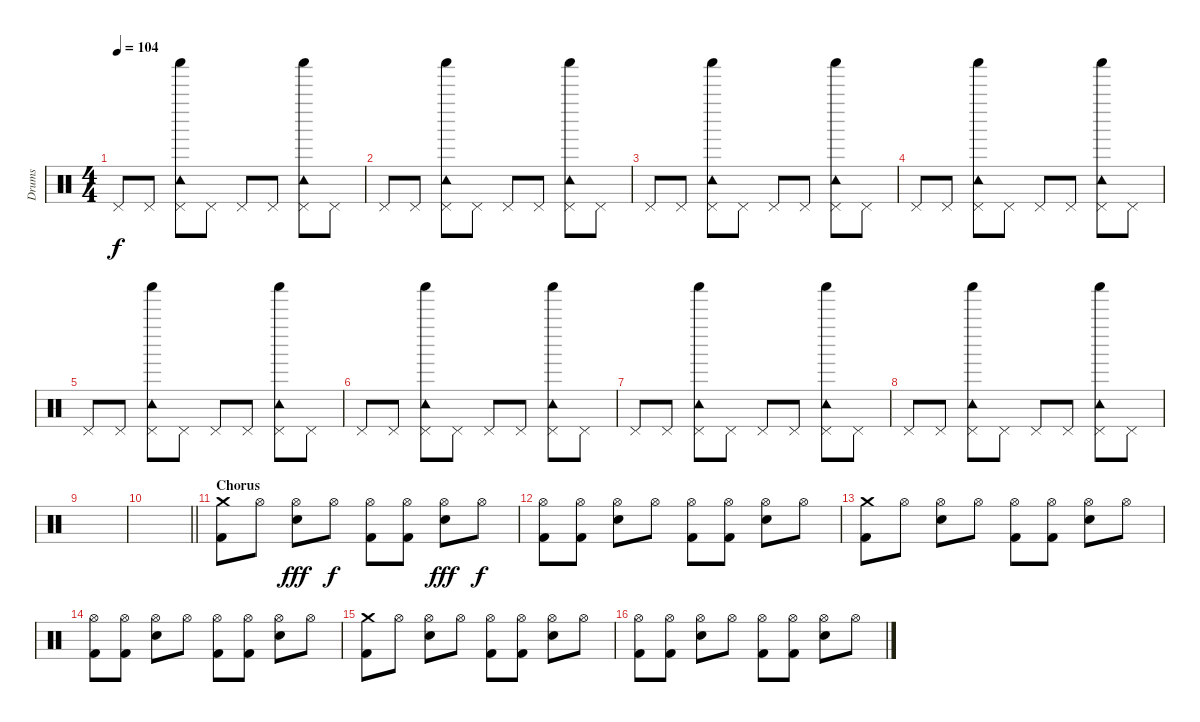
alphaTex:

\track ("Drums" "Drums") {instrument percussion}
\staff {score}
\articulation defaults
\ts (4 4)
\tempo 104
\clef neutral
\ks c "Pedal Hi-Hat (hit)".8{dy f} "Pedal Hi-Hat (hit)".8
("Pedal Hi-Hat (hit)" "Tambourine (hit)" "Shaker (hit)").8 "Pedal Hi-Hat (hit)".8 "Pedal Hi-Hat (hit)".8 "Pedal Hi-Hat (hit)".8 ("Pedal Hi-Hat (hit)" "Tambourine (hit)" "Shaker (hit)").8 "Pedal Hi-Hat (hit)".8 |
"Pedal Hi-Hat (hit)".8 "Pedal Hi-Hat (hit)".8 ("Pedal Hi-Hat (hit)" "Tambourine (hit)" "Shaker (hit)").8 "Pedal Hi-Hat (hit)".8 "Pedal Hi-Hat (hit)".8 "Pedal Hi-Hat (hit)".8 ("Pedal Hi-Hat (hit)" "Tambourine (hit)" "Shaker (hit)").8 "Pedal Hi-Hat (hit)".8 |
"Pedal Hi-Hat (hit)".8 "Pedal Hi-Hat (hit)".8 ("Pedal Hi-Hat (hit)" "Tambourine (hit)" "Shaker (hit)").8 "Pedal Hi-Hat (hit)".8 "Pedal Hi-Hat (hit)".8 "Pedal Hi-Hat (hit)".8 ("Pedal Hi-Hat (hit)" "Tambourine (hit)" "Shaker (hit)").8 "Pedal Hi-Hat (hit)".8 |
"Pedal Hi-Hat (hit)".8 "Pedal Hi-Hat (hit)".8 ("Pedal Hi-Hat (hit)" "Tambourine (hit)" "Shaker (hit)").8 "Pedal Hi-Hat (hit)".8 "Pedal Hi-Hat (hit)".8 "Pedal Hi-Hat (hit)".8 ("Pedal Hi-Hat (hit)" "Tambourine (hit)" "Shaker (hit)").8 "Pedal Hi-Hat (hit)".8 |
"Pedal Hi-Hat (hit)".8 "Pedal Hi-Hat (hit)".8 ("Pedal Hi-Hat (hit)" "Tambourine (hit)" "Shaker (hit)").8 "Pedal Hi-Hat (hit)".8 "Pedal Hi-Hat (hit)".8 "Pedal Hi-Hat (hit)".8 ("Pedal Hi-Hat (hit)" "Tambourine (hit)" "Shaker (hit)").8 "Pedal Hi-Hat (hit)".8 |
"Pedal Hi-Hat (hit)".8 "Pedal Hi-Hat (hit)".8 ("Pedal Hi-Hat (hit)" "Tambourine (hit)" "Shaker (hit)").8 "Pedal Hi-Hat (hit)".8 "Pedal Hi-Hat (hit)".8 "Pedal Hi-Hat (hit)".8 ("Pedal Hi-Hat (hit)" "Tambourine (hit)" "Shaker (hit)").8 "Pedal Hi-Hat (hit)".8 |
"Pedal Hi-Hat (hit)".8 "Pedal Hi-Hat (hit)".8 ("Pedal Hi-Hat (hit)" "Tambourine (hit)" "Shaker (hit)").8 "Pedal Hi-Hat (hit)".8 "Pedal Hi-Hat (hit)".8 "Pedal Hi-Hat (hit)".8 ("Pedal Hi-Hat (hit)" "Tambourine (hit)" "Shaker (hit)").8 "Pedal Hi-Hat (hit)".8 |
"Pedal Hi-Hat (hit)".8 "Pedal Hi-Hat (hit)".8 ("Pedal Hi-Hat (hit)" "Tambourine (hit)" "Shaker (hit)").8 "Pedal Hi-Hat (hit)".8 "Pedal Hi-Hat (hit)".8 "Pedal Hi-Hat (hit)".8 ("Pedal Hi-Hat (hit)" "Tambourine (hit)" "Shaker (hit)").8 "Pedal Hi-Hat (hit)".8 |
|
\barLineRight lightlight
|
\section ("" "Chorus")
("Crash medium (hit)" "Kick (hit) 2").8{volume 10} "Hi-Hat (open)".8 ("Hi-Hat (open)" "Snare (hit) 2").8{dy fff} "Hi-Hat (open)".8{dy f} ("Hi-Hat (open)" "Kick (hit) 2").8 ("Hi-Hat (open)" "Kick (hit) 2").8 ("Hi-Hat (open)" "Snare (hit) 2").8{dy fff} "Hi-Hat (open)".8{dy f} |
("Hi-Hat (open)" "Kick (hit) 2").8 ("Hi-Hat (open)" "Kick (hit) 2").8 ("Hi-Hat (open)" "Snare (hit) 2").8 "Hi-Hat (open)".8 ("Hi-Hat (open)" "Kick (hit) 2").8 ("Hi-Hat (open)" "Kick (hit) 2").8 ("Hi-Hat (open)" "Snare (hit) 2").8 "Hi-Hat (open)".8 |
("Crash medium (hit)" "Kick (hit) 2").8 "Hi-Hat (open)".8 ("Hi-Hat (open)" "Snare (hit) 2").8 "Hi-Hat (open)".8 ("Hi-Hat (open)" "Kick (hit) 2").8 ("Hi-Hat (open)" "Kick (hit) 2").8 ("Hi-Hat (open)" "Snare (hit) 2").8 "Hi-Hat (open)".8 |
("Hi-Hat (open)" "Kick (hit) 2").8 ("Hi-Hat (open)" "Kick (hit) 2").8 ("Hi-Hat (open)" "Snare (hit) 2").8 "Hi-Hat (open)".8 ("Hi-Hat (open)" "Kick (hit) 2").8 ("Hi-Hat (open)" "Kick (hit) 2").8 ("Hi-Hat (open)" "Snare (hit) 2").8 "Hi-Hat (open)".8 |
("Crash medium (hit)" "Kick (hit) 2").8 "Hi-Hat (open)".8 ("Hi-Hat (open)" "Snare (hit) 2").8 "Hi-Hat (open)".8 ("Hi-Hat (open)" "Kick (hit) 2").8 ("Hi-Hat (open)" "Kick (hit) 2").8 ("Hi-Hat (open)" "Snare (hit) 2").8 "Hi-Hat (open)".8 |
("Hi-Hat (open)" "Kick (hit) 2").8 ("Hi-Hat (open)" "Kick (hit) 2").8 ("Hi-Hat (open)" "Snare (hit) 2").8 "Hi-Hat (open)".8 ("Hi-Hat (open)" "Kick (hit) 2").8 ("Hi-Hat (open)" "Kick (hit) 2").8 ("Hi-Hat (open)" "Snare (hit) 2").8 "Hi-Hat (open)".8
